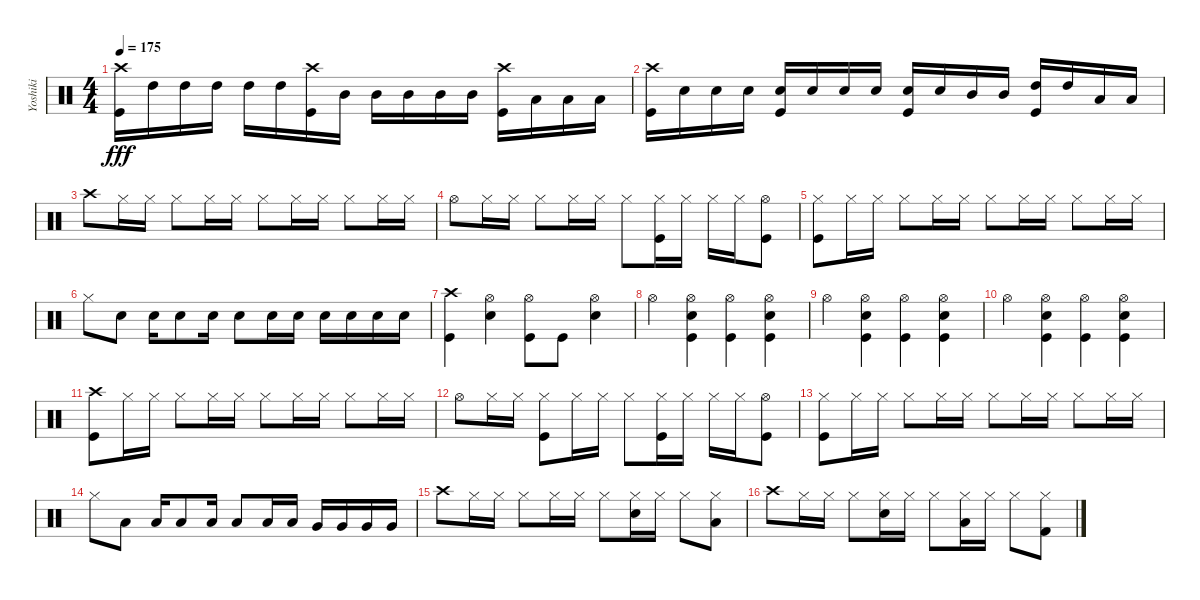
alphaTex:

\track ("Yoshiki" "Yoshiki") {instrument percussion}
\staff {score}
\articulation defaults
\ts (4 4)
\tempo 175
\clef neutral
\ks c
("Crash high (hit)" "Kick (hit)").16{dy fff} "High Tom (hit)".16 "High Tom (hit)".16 "High Tom (hit)".16 "High Tom (hit)".16 "High Tom (hit)".16 ("Crash high (hit)" "Kick (hit)").16 "Mid Tom (hit)".16 "Mid Tom (hit)".16 "Mid Tom (hit)".16 "Mid Tom (hit)".16 "Mid Tom (hit)".16 ("Crash high (hit)" "Kick (hit)").16 "Low Tom (hit)".16 "Low Tom (hit)".16 "Low Tom (hit)".16 |
("Crash high (hit)" "Kick (hit)").16 "Snare (hit) 2".16 "Snare (hit) 2".16 "Snare (hit) 2".16 ("Snare (hit) 2" "Kick (hit)").16 "Snare (hit) 2".16 "Snare (hit) 2".16 "Snare (hit) 2".16 ("Snare (hit) 2" "Kick (hit)").16 "Snare (hit) 2".16 "Mid Tom (hit)".16 "Mid Tom (hit)".16 ("High Tom (hit)" "Kick (hit)").16 "High Tom (hit)".16 "Low Tom (hit)".16 "Low Tom (hit)".16 |
"Crash high (hit)".8 "Hi-Hat (closed)".16 "Hi-Hat (closed)".16 "Hi-Hat (closed)".8 "Hi-Hat (closed)".16 "Hi-Hat (closed)".16 "Hi-Hat (closed)".8 "Hi-Hat (closed)".16 "Hi-Hat (closed)".16 "Hi-Hat (closed)".8 "Hi-Hat (closed)".16 "Hi-Hat (closed)".16 |
"Hi-Hat (open)".8 "Hi-Hat (closed)".16 "Hi-Hat (closed)".16 "Hi-Hat (closed)".8 "Hi-Hat (closed)".16 "Hi-Hat (closed)".16 "Hi-Hat (closed)".8 ("Hi-Hat (closed)" "Kick (hit)").16 "Hi-Hat (closed)".16 "Hi-Hat (closed)".16 "Hi-Hat (closed)".16 ("Hi-Hat (open)" "Kick (hit)").8 |
("Hi-Hat (closed)" "Kick (hit)").8 "Hi-Hat (closed)".16 "Hi-Hat (closed)".16 "Hi-Hat (closed)".8 "Hi-Hat (closed)".16 "Hi-Hat (closed)".16 "Hi-Hat (closed)".8 "Hi-Hat (closed)".16 "Hi-Hat (closed)".16 "Hi-Hat (closed)".8 "Hi-Hat (closed)".16 "Hi-Hat (closed)".16 |
"Hi-Hat (closed)".8 "Snare (hit) 2".8 "Snare (hit) 2".16 "Snare (hit) 2".8 "Snare (hit) 2".16 "Snare (hit) 2".8 "Snare (hit) 2".16 "Snare (hit) 2".16 "Snare (hit) 2".16 "Snare (hit) 2".16 "Snare (hit) 2".16 "Snare (hit) 2".16 |
("Crash high (hit)" "Kick (hit)").4 ("Hi-Hat (open)" "Snare (hit) 2").4 ("Hi-Hat (open)" "Kick (hit)").8 "Kick (hit)".8 ("Hi-Hat (open)" "Snare (hit) 2").4 |
"Hi-Hat (open)".4 ("Hi-Hat (open)" "Snare (hit) 2" "Kick (hit)").4 ("Hi-Hat (open)" "Kick (hit)").4 ("Hi-Hat (open)" "Snare (hit) 2" "Kick (hit)").4 |
"Hi-Hat (open)".4 ("Hi-Hat (open)" "Snare (hit) 2" "Kick (hit)").4 ("Hi-Hat (open)" "Kick (hit)").4 ("Hi-Hat (open)" "Snare (hit) 2" "Kick (hit)").4 |
"Hi-Hat (open)".4 ("Hi-Hat (open)" "Snare (hit) 2" "Kick (hit)").4 ("Hi-Hat (open)" "Kick (hit)").4 ("Hi-Hat (open)" "Snare (hit) 2" "Kick (hit)").4 |
("Crash high (hit)" "Kick (hit)").8 "Hi-Hat (closed)".16 "Hi-Hat (closed)".16 "Hi-Hat (closed)".8 "Hi-Hat (closed)".16 "Hi-Hat (closed)".16 "Hi-Hat (closed)".8 "Hi-Hat (closed)".16 "Hi-Hat (closed)".16 "Hi-Hat (closed)".8 "Hi-Hat (closed)".16 "Hi-Hat (closed)".16 |
"Hi-Hat (open)".8 "Hi-Hat (closed)".16 "Hi-Hat (closed)".16 ("Hi-Hat (closed)" "Kick (hit)").8 "Hi-Hat (closed)".16 "Hi-Hat (closed)".16 "Hi-Hat (closed)".8 ("Hi-Hat (closed)" "Kick (hit)").16 "Hi-Hat (closed)".16 "Hi-Hat (closed)".16 "Hi-Hat (closed)".16 ("Hi-Hat (open)" "Kick (hit)").8 |
("Hi-Hat (closed)" "Kick (hit)").8 "Hi-Hat (closed)".16 "Hi-Hat (closed)".16 "Hi-Hat (closed)".8 "Hi-Hat (closed)".16 "Hi-Hat (closed)".16 "Hi-Hat (closed)".8 "Hi-Hat (closed)".16 "Hi-Hat (closed)".16 "Hi-Hat (closed)".8 "Hi-Hat (closed)".16 "Hi-Hat (closed)".16 |
"Hi-Hat (closed)".8 "Low Tom (hit)".8 "Low Tom (hit)".16 "Low Tom (hit)".8 "Low Tom (hit)".16 "Low Tom (hit)".8 "Low Tom (hit)".16 "Low Tom (hit)".16 "Very Low Tom (hit)".16 "Very Low Tom (hit)".16 "Very Low Tom (hit)".16 "Very Low Tom (hit)".16 |
"Crash high (hit)".8 "Hi-Hat (closed)".16 "Hi-Hat (closed)".16 "Hi-Hat (closed)".8 "Hi-Hat (closed)".16 "Hi-Hat (closed)".16 "Hi-Hat (closed)".8 ("Hi-Hat (closed)" "Snare (hit) 2").16 "Hi-Hat (closed)".16 "Hi-Hat (closed)".8 ("Hi-Hat (closed)" "Low Tom (hit)").8 |
"Crash high (hit)".8 "Hi-Hat (closed)".16 "Hi-Hat (closed)".16 "Hi-Hat (closed)".8 ("Hi-Hat (closed)" "Snare (hit) 2").16 "Hi-Hat (closed)".16 "Hi-Hat (closed)".8 ("Hi-Hat (closed)" "Low Tom (hit)").16 "Hi-Hat (closed)".16 "Hi-Hat (closed)".8 ("Hi-Hat (closed)" "Kick (hit) 2").8
